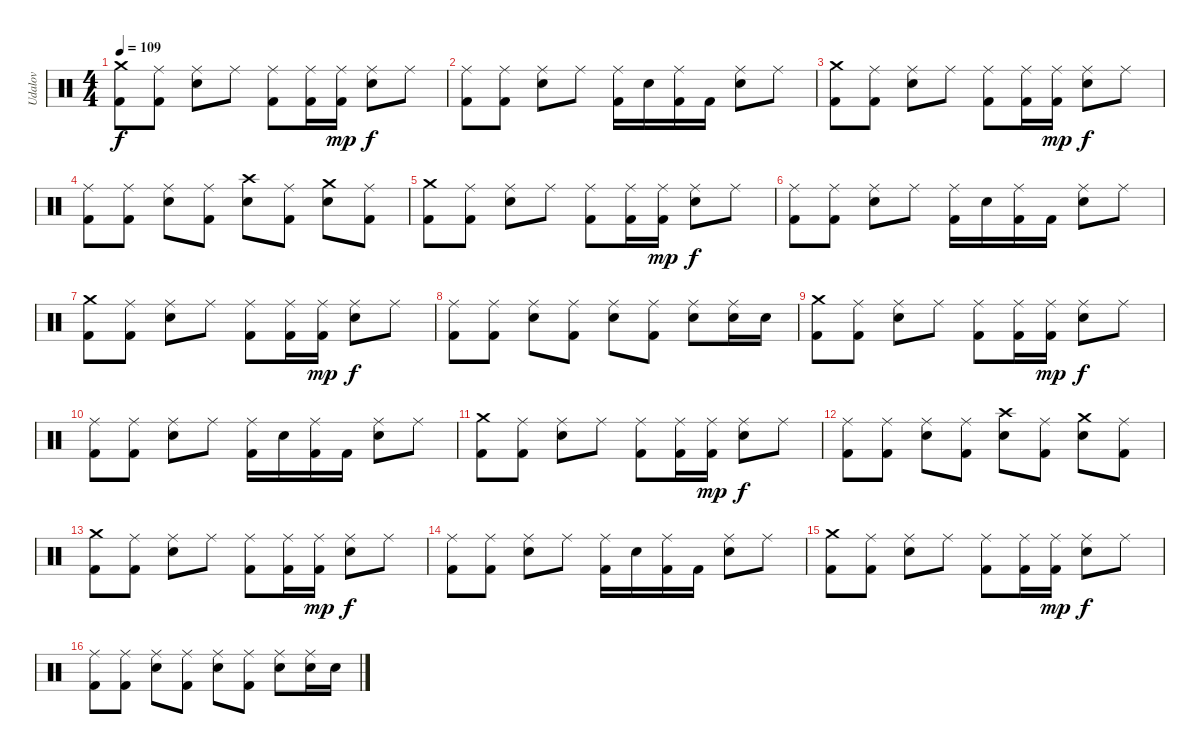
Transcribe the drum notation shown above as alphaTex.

\track ("Udalov" "Udalov") {instrument percussion}
\staff {score}
\articulation defaults
\ts (4 4)
\tempo 109
\clef neutral
\ks c
("Kick (hit) 2" "Crash medium (hit)").8{dy f} ("Kick (hit) 2" "Ride (middle)").8 ("Snare (hit) 2" "Ride (middle)").8 "Ride (middle)".8 ("Kick (hit) 2" "Ride (middle)").8 ("Kick (hit) 2" "Ride (middle)").16 ("Ride (middle)" "Kick (hit) 2").16{dy mp} ("Snare (hit) 2" "Ride (middle)").8{dy f} "Ride (middle)".8 |
("Kick (hit) 2" "Ride (middle)").8 ("Kick (hit) 2" "Ride (middle)").8 ("Snare (hit) 2" "Ride (middle)").8 "Ride (middle)".8 ("Kick (hit) 2" "Ride (middle)").16 "Snare (hit) 2".16 ("Ride (middle)" "Kick (hit) 2").16 "Kick (hit) 2".16 ("Snare (hit) 2" "Ride (middle)").8 "Ride (middle)".8 |
("Kick (hit) 2" "Crash medium (hit)").8 ("Ride (middle)" "Kick (hit) 2").8 ("Ride (middle)" "Snare (hit) 2").8 "Ride (middle)".8 ("Ride (middle)" "Kick (hit) 2").8 ("Ride (middle)" "Kick (hit) 2").16 ("Ride (middle)" "Kick (hit) 2").16{dy mp} ("Ride (middle)" "Snare (hit) 2").8{dy f} "Ride (middle)".8 |
("Ride (middle)" "Kick (hit) 2").8 ("Ride (middle)" "Kick (hit) 2").8 ("Ride (middle)" "Snare (hit) 2").8 ("Kick (hit) 2" "Ride (middle)").8 ("Snare (hit) 2" "Crash high (hit)").8 ("Kick (hit) 2" "Ride (middle)").8 ("Snare (hit) 2" "Crash medium (hit)").8 ("Kick (hit) 2" "Ride (middle)").8 |
("Kick (hit) 2" "Crash medium (hit)").8 ("Kick (hit) 2" "Ride (middle)").8 ("Snare (hit) 2" "Ride (middle)").8 "Ride (middle)".8 ("Kick (hit) 2" "Ride (middle)").8 ("Kick (hit) 2" "Ride (middle)").16 ("Ride (middle)" "Kick (hit) 2").16{dy mp} ("Snare (hit) 2" "Ride (middle)").8{dy f} "Ride (middle)".8 |
("Kick (hit) 2" "Ride (middle)").8 ("Kick (hit) 2" "Ride (middle)").8 ("Snare (hit) 2" "Ride (middle)").8 "Ride (middle)".8 ("Kick (hit) 2" "Ride (middle)").16 "Snare (hit) 2".16 ("Ride (middle)" "Kick (hit) 2").16 "Kick (hit) 2".16 ("Snare (hit) 2" "Ride (middle)").8 "Ride (middle)".8 |
("Kick (hit) 2" "Crash medium (hit)").8 ("Ride (middle)" "Kick (hit) 2").8 ("Ride (middle)" "Snare (hit) 2").8 "Ride (middle)".8 ("Ride (middle)" "Kick (hit) 2").8 ("Ride (middle)" "Kick (hit) 2").16 ("Ride (middle)" "Kick (hit) 2").16{dy mp} ("Ride (middle)" "Snare (hit) 2").8{dy f} "Ride (middle)".8 |
("Ride (middle)" "Kick (hit) 2").8 ("Ride (middle)" "Kick (hit) 2").8 ("Ride (middle)" "Snare (hit) 2").8 ("Kick (hit) 2" "Ride (middle)").8 ("Snare (hit) 2" "Ride (middle)").8 ("Kick (hit) 2" "Ride (middle)").8 ("Snare (hit) 2" "Ride (middle)").8 ("Snare (hit) 2" "Ride (middle)").16 "Snare (hit) 2".16 |
("Kick (hit) 2" "Crash medium (hit)").8 ("Kick (hit) 2" "Ride (middle)").8 ("Snare (hit) 2" "Ride (middle)").8 "Ride (middle)".8 ("Kick (hit) 2" "Ride (middle)").8 ("Kick (hit) 2" "Ride (middle)").16 ("Ride (middle)" "Kick (hit) 2").16{dy mp} ("Snare (hit) 2" "Ride (middle)").8{dy f} "Ride (middle)".8 |
("Kick (hit) 2" "Ride (middle)").8 ("Kick (hit) 2" "Ride (middle)").8 ("Snare (hit) 2" "Ride (middle)").8 "Ride (middle)".8 ("Kick (hit) 2" "Ride (middle)").16 "Snare (hit) 2".16 ("Ride (middle)" "Kick (hit) 2").16 "Kick (hit) 2".16 ("Snare (hit) 2" "Ride (middle)").8 "Ride (middle)".8 |
("Kick (hit) 2" "Crash medium (hit)").8 ("Ride (middle)" "Kick (hit) 2").8 ("Ride (middle)" "Snare (hit) 2").8 "Ride (middle)".8 ("Ride (middle)" "Kick (hit) 2").8 ("Ride (middle)" "Kick (hit) 2").16 ("Ride (middle)" "Kick (hit) 2").16{dy mp} ("Ride (middle)" "Snare (hit) 2").8{dy f} "Ride (middle)".8 |
("Ride (middle)" "Kick (hit) 2").8 ("Ride (middle)" "Kick (hit) 2").8 ("Ride (middle)" "Snare (hit) 2").8 ("Kick (hit) 2" "Ride (middle)").8 ("Snare (hit) 2" "Crash high (hit)").8 ("Kick (hit) 2" "Ride (middle)").8 ("Snare (hit) 2" "Crash medium (hit)").8 ("Kick (hit) 2" "Ride (middle)").8 |
("Kick (hit) 2" "Crash medium (hit)").8 ("Kick (hit) 2" "Ride (middle)").8 ("Snare (hit) 2" "Ride (middle)").8 "Ride (middle)".8 ("Kick (hit) 2" "Ride (middle)").8 ("Kick (hit) 2" "Ride (middle)").16 ("Ride (middle)" "Kick (hit) 2").16{dy mp} ("Snare (hit) 2" "Ride (middle)").8{dy f} "Ride (middle)".8 |
("Kick (hit) 2" "Ride (middle)").8 ("Kick (hit) 2" "Ride (middle)").8 ("Snare (hit) 2" "Ride (middle)").8 "Ride (middle)".8 ("Kick (hit) 2" "Ride (middle)").16 "Snare (hit) 2".16 ("Ride (middle)" "Kick (hit) 2").16 "Kick (hit) 2".16 ("Snare (hit) 2" "Ride (middle)").8 "Ride (middle)".8 |
("Kick (hit) 2" "Crash medium (hit)").8 ("Ride (middle)" "Kick (hit) 2").8 ("Ride (middle)" "Snare (hit) 2").8 "Ride (middle)".8 ("Ride (middle)" "Kick (hit) 2").8 ("Ride (middle)" "Kick (hit) 2").16 ("Ride (middle)" "Kick (hit) 2").16{dy mp} ("Ride (middle)" "Snare (hit) 2").8{dy f} "Ride (middle)".8 |
("Ride (middle)" "Kick (hit) 2").8 ("Ride (middle)" "Kick (hit) 2").8 ("Ride (middle)" "Snare (hit) 2").8 ("Kick (hit) 2" "Ride (middle)").8 ("Snare (hit) 2" "Ride (middle)").8 ("Kick (hit) 2" "Ride (middle)").8 ("Snare (hit) 2" "Ride (middle)").8 ("Snare (hit) 2" "Ride (middle)").16 "Snare (hit) 2".16
